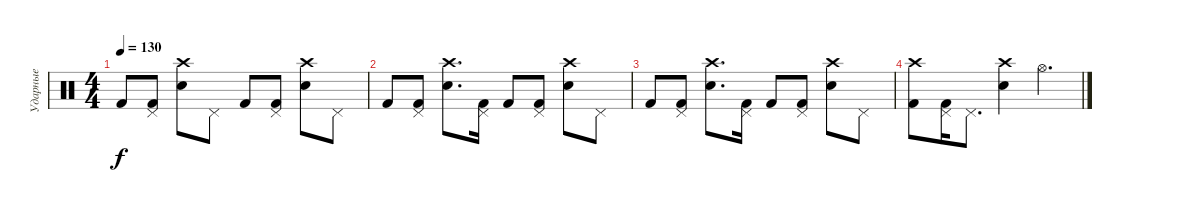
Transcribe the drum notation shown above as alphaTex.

\track ("Ударные" "Ударные") {instrument percussion}
\staff {score}
\articulation defaults
\ts (4 4)
\tempo 130
\clef neutral
\ks c "Kick (hit) 2".8{dy f}
("Pedal Hi-Hat (hit)" "Kick (hit) 2").8 ("Crash high (hit)" "Snare (hit) 2").8 "Pedal Hi-Hat (hit)".8 "Kick (hit) 2".8 ("Pedal Hi-Hat (hit)" "Kick (hit) 2").8 ("Crash high (hit)" "Snare (hit) 2").8 "Pedal Hi-Hat (hit)".8 |
"Kick (hit) 2".8 ("Pedal Hi-Hat (hit)" "Kick (hit) 2").8 ("Crash high (hit)" "Snare (hit) 2").8{d} ("Pedal Hi-Hat (hit)" "Kick (hit) 2").16 "Kick (hit) 2".8 ("Pedal Hi-Hat (hit)" "Kick (hit) 2").8 ("Crash high (hit)" "Snare (hit) 2").8 "Pedal Hi-Hat (hit)".8 |
"Kick (hit) 2".8 ("Pedal Hi-Hat (hit)" "Kick (hit) 2").8 ("Crash high (hit)" "Snare (hit) 2").8{d} ("Pedal Hi-Hat (hit)" "Kick (hit) 2").16 "Kick (hit) 2".8 ("Pedal Hi-Hat (hit)" "Kick (hit) 2").8 ("Crash high (hit)" "Snare (hit) 2").8 "Pedal Hi-Hat (hit)".8 |
("Crash high (hit)" "Kick (hit) 2").8 ("Pedal Hi-Hat (hit)" "Kick (hit) 2").16 "Pedal Hi-Hat (hit)".8{d} ("Crash high (hit)" "Snare (hit) 2").4 "Hi-Hat (open)".4{d}
